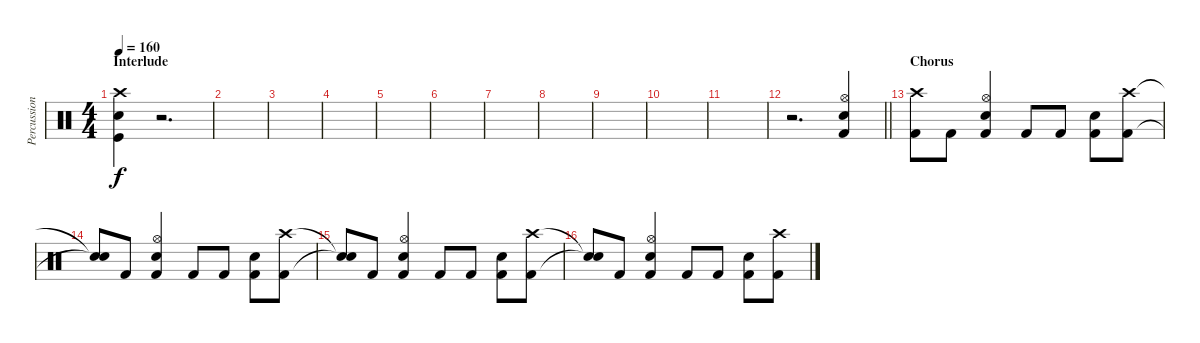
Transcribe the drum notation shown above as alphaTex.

\track ("Percussion" "Percussion") {instrument percussion}
\staff {score}
\articulation defaults
\ts (4 4)
\section ("" "Interlude")
\tempo 160
\clef neutral
\ks c
("Crash high (hit)" "Snare (hit) 2" "Kick (hit)").4{dy f} r.2{d} |
|
|
|
|
|
|
|
|
|
|
\barLineRight lightlight
r.2{d} ("Hi-Hat (open)" "Snare (hit) 2" "Kick (hit) 2").4 |
\section ("" "Chorus")
("Crash high (hit)" "Kick (hit) 2").8 "Kick (hit) 2".8 ("Hi-Hat (open)" "Snare (hit) 2" "Kick (hit) 2").4 "Kick (hit) 2".8 "Kick (hit) 2".8 ("Snare (hit) 2" "Kick (hit) 2").8 ("Crash high (hit)" "Kick (hit) 2").8 |
("Snare (hit)"{t} "Snare (hit)"{t}).8 "Kick (hit) 2".8 ("Hi-Hat (open)" "Snare (hit) 2" "Kick (hit) 2").4 "Kick (hit) 2".8 "Kick (hit) 2".8 ("Snare (hit) 2" "Kick (hit) 2").8 ("Crash high (hit)" "Kick (hit) 2").8 |
("Snare (hit)"{t} "Snare (hit)"{t}).8 "Kick (hit) 2".8 ("Hi-Hat (open)" "Snare (hit) 2" "Kick (hit) 2").4 "Kick (hit) 2".8 "Kick (hit) 2".8 ("Snare (hit) 2" "Kick (hit) 2").8 ("Crash high (hit)" "Kick (hit) 2").8 |
("Snare (hit)"{t} "Snare (hit)"{t}).8 "Kick (hit) 2".8 ("Hi-Hat (open)" "Snare (hit) 2" "Kick (hit) 2").4 "Kick (hit) 2".8 "Kick (hit) 2".8 ("Snare (hit) 2" "Kick (hit) 2").8 ("Crash high (hit)" "Kick (hit) 2").8
